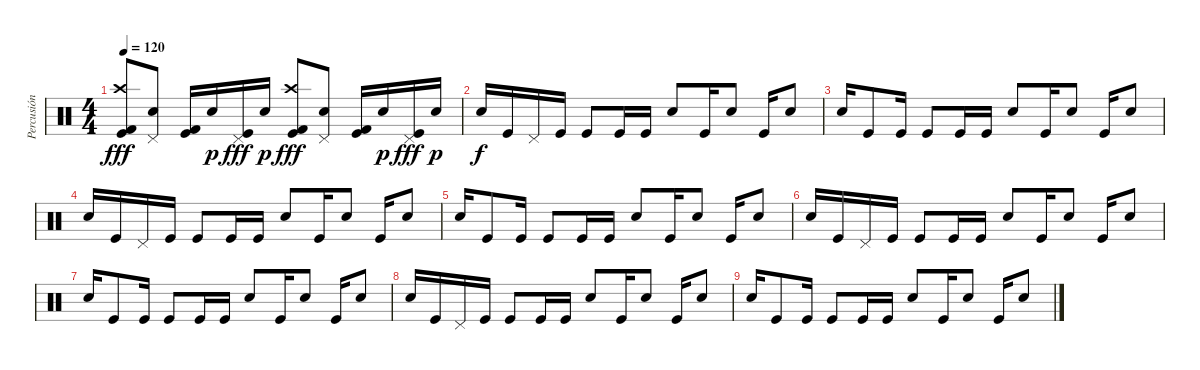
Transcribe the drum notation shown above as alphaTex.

\track ("Percusión" "Percusión") {instrument percussion}
\staff {score}
\articulation defaults
\ts (4 4)
\tempo 120
\clef neutral
\ks c
("Kick (hit)" "Crash high (hit)" "Kick (hit) 2").8{dy fff} ("Electric Snare (hit)" "Pedal Hi-Hat (hit)").8 ("Kick (hit)" "Kick (hit) 2").16 "Electric Snare (hit)".16{dy p} ("Kick (hit)" "Pedal Hi-Hat (hit)").16{dy fff} "Electric Snare (hit)".16{dy p} ("Kick (hit)" "Kick (hit) 2" "Crash high (hit)").8{dy fff} ("Electric Snare (hit)" "Pedal Hi-Hat (hit)").8 ("Kick (hit)" "Kick (hit) 2").16 "Electric Snare (hit)".16{dy p} ("Kick (hit)" "Pedal Hi-Hat (hit)").16{dy fff} "Electric Snare (hit)".16{dy p} |
"Electric Snare (hit)".16{dy f volume 6} "Kick (hit)".16 "Pedal Hi-Hat (hit)".16 "Kick (hit)".16 "Kick (hit)".8 "Kick (hit)".16 "Kick (hit)".16 "Electric Snare (hit)".8 "Kick (hit)".16 "Electric Snare (hit)".8 "Kick (hit)".16 "Electric Snare (hit)".8 |
"Electric Snare (hit)".16 "Kick (hit)".8 "Kick (hit)".16 "Kick (hit)".8 "Kick (hit)".16 "Kick (hit)".16 "Electric Snare (hit)".8 "Kick (hit)".16 "Electric Snare (hit)".8 "Kick (hit)".16 "Electric Snare (hit)".8 |
"Electric Snare (hit)".16 "Kick (hit)".16 "Pedal Hi-Hat (hit)".16 "Kick (hit)".16 "Kick (hit)".8 "Kick (hit)".16 "Kick (hit)".16 "Electric Snare (hit)".8 "Kick (hit)".16 "Electric Snare (hit)".8 "Kick (hit)".16 "Electric Snare (hit)".8 |
"Electric Snare (hit)".16 "Kick (hit)".8 "Kick (hit)".16 "Kick (hit)".8 "Kick (hit)".16 "Kick (hit)".16 "Electric Snare (hit)".8 "Kick (hit)".16 "Electric Snare (hit)".8 "Kick (hit)".16 "Electric Snare (hit)".8 |
"Electric Snare (hit)".16{volume 0} "Kick (hit)".16 "Pedal Hi-Hat (hit)".16 "Kick (hit)".16 "Kick (hit)".8 "Kick (hit)".16 "Kick (hit)".16 "Electric Snare (hit)".8 "Kick (hit)".16 "Electric Snare (hit)".8 "Kick (hit)".16 "Electric Snare (hit)".8 |
"Electric Snare (hit)".16 "Kick (hit)".8 "Kick (hit)".16 "Kick (hit)".8 "Kick (hit)".16 "Kick (hit)".16 "Electric Snare (hit)".8 "Kick (hit)".16 "Electric Snare (hit)".8 "Kick (hit)".16 "Electric Snare (hit)".8 |
"Electric Snare (hit)".16 "Kick (hit)".16 "Pedal Hi-Hat (hit)".16 "Kick (hit)".16 "Kick (hit)".8 "Kick (hit)".16 "Kick (hit)".16 "Electric Snare (hit)".8 "Kick (hit)".16 "Electric Snare (hit)".8 "Kick (hit)".16 "Electric Snare (hit)".8 |
"Electric Snare (hit)".16 "Kick (hit)".8 "Kick (hit)".16 "Kick (hit)".8 "Kick (hit)".16 "Kick (hit)".16 "Electric Snare (hit)".8 "Kick (hit)".16 "Electric Snare (hit)".8 "Kick (hit)".16 "Electric Snare (hit)".8
